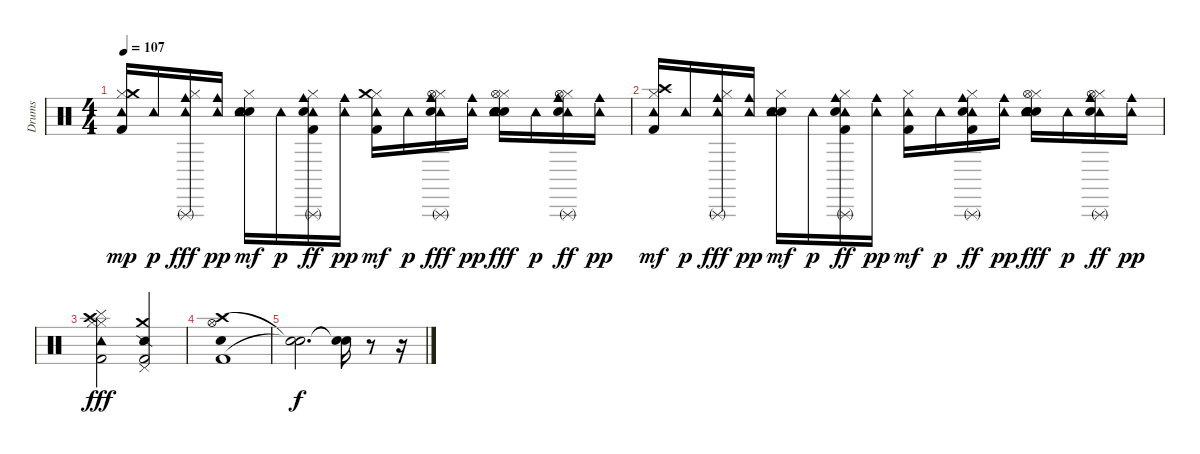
\track ("Drums" "Drums") {instrument percussion}
\staff {score}
\articulation defaults
\ts (4 4)
\tempo 107
\clef neutral
\ks c
("Kick (hit) 2" "Hi-Hat (closed)" "Tambourine (hit)" "Crash medium (hit)").16{dy mp} "Tambourine (hit)".16{dy p} ("Hi-Hat (closed)" "Tambourine (hit)" "Cowbell medium (hit)" "Triangle (rnute)").16{dy fff} ("Tambourine (hit)" "Cowbell medium (hit)").16{dy pp} ("Hand Clap (hit)" "Electric Snare (hit)" "Hi-Hat (closed)" "Tambourine (hit)").16{dy mf} "Tambourine (hit)".16{dy p} ("Kick (hit) 2" "Hi-Hat (closed)" "Tambourine (hit)" "Cowbell medium (hit)" "Triangle (rnute)" "Metronome (bell)").16{dy ff} ("Tambourine (hit)" "Cowbell medium (hit)").16{dy pp} ("Kick (hit) 2" "Hi-Hat (closed)" "Tambourine (hit)" "Crash medium (hit)").16{dy mf} "Tambourine (hit)".16{dy p} ("Hi-Hat (closed)" "Tambourine (hit)" "Cowbell medium (hit)" "Triangle (rnute)" "Metronome (bell)" "Hi-Hat (open)").16{dy fff} ("Tambourine (hit)" "Cowbell medium (hit)").16{dy pp} ("Hand Clap (hit)" "Electric Snare (hit)" "Hi-Hat (closed)" "Tambourine (hit)" "Metronome (bell)" "Hi-Hat (open)").16{dy fff} "Tambourine (hit)".16{dy p} ("Hi-Hat (closed)" "Tambourine (hit)" "Cowbell medium (hit)" "Triangle (rnute)" "Metronome (bell)" "Hi-Hat (open)").16{dy ff} ("Tambourine (hit)" "Cowbell medium (hit)").16{dy pp} |
("Kick (hit) 2" "Hi-Hat (closed)" "Crash high (hit)" "Tambourine (hit)").16{dy mf} "Tambourine (hit)".16{dy p} ("Hi-Hat (closed)" "Tambourine (hit)" "Cowbell medium (hit)" "Triangle (rnute)").16{dy fff} ("Tambourine (hit)" "Cowbell medium (hit)").16{dy pp} ("Hand Clap (hit)" "Electric Snare (hit)" "Hi-Hat (closed)" "Tambourine (hit)").16{dy mf} "Tambourine (hit)".16{dy p} ("Kick (hit) 2" "Hi-Hat (closed)" "Tambourine (hit)" "Cowbell medium (hit)" "Triangle (rnute)" "Metronome (bell)").16{dy ff} ("Tambourine (hit)" "Cowbell medium (hit)").16{dy pp} ("Kick (hit) 2" "Hi-Hat (closed)" "Tambourine (hit)").16{dy mf} "Tambourine (hit)".16{dy p} ("Kick (hit) 2" "Hi-Hat (closed)" "Tambourine (hit)" "Cowbell medium (hit)" "Triangle (rnute)" "Metronome (bell)").16{dy ff} ("Tambourine (hit)" "Cowbell medium (hit)").16{dy pp} ("Hand Clap (hit)" "Electric Snare (hit)" "Hi-Hat (closed)" "Tambourine (hit)" "Metronome (bell)" "Hi-Hat (open)").16{dy fff} "Tambourine (hit)".16{dy p} ("Hi-Hat (closed)" "Tambourine (hit)" "Cowbell medium (hit)" "Triangle (rnute)" "Metronome (bell)" "Hi-Hat (open)").16{dy ff} ("Tambourine (hit)" "Cowbell medium (hit)").16{dy pp} |
("Kick (hit) 2" "Hi-Hat (closed)" "Crash high (hit)" "Tambourine (hit)" "Cymbal (hit)" "Hi-Hat (closed)").2{dy fff} ("Kick (hit) 2" "Crash medium (hit)" "Snare (side stick) 2" "Pedal Hi-Hat (hit)").2 |
("Kick (hit) 2" "Crash high (hit)" "Metronome (bell)" "Hi-Hat (open)").1 |
("Snare (hit)"{t} "Snare (hit)"{t}).2{d dy f} ("Snare (hit)"{t} "Snare (hit)"{t}).16 r.8 r.16
